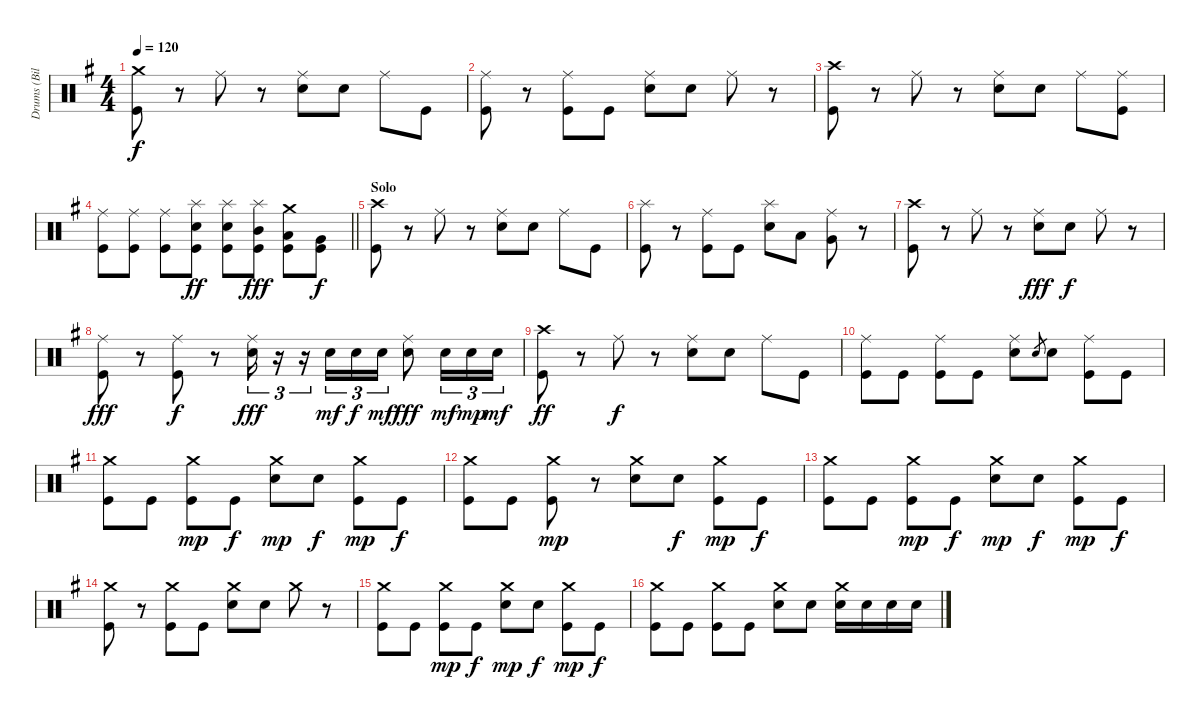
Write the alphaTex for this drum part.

\track ("Drums (Bill Ward)" "Drums (Bil") {instrument percussion}
\staff {score}
\articulation defaults
\ts (4 4)
\tempo 120
\clef neutral
\ks g
("Crash medium (hit)" "Kick (hit)").8{dy f} r.8 "Ride (middle)".8 r.8 ("Ride (middle)" "Electric Snare (hit)").8 "Electric Snare (hit)".8 "Ride (middle)".8 "Kick (hit)".8 |
("Ride (middle)" "Kick (hit)").8 r.8 ("Ride (middle)" "Kick (hit)").8 "Kick (hit)".8 ("Ride (middle)" "Electric Snare (hit)").8 "Electric Snare (hit)".8 "Ride (middle)".8 r.8 |
("Crash high (hit)" "Kick (hit)").8 r.8 "Ride (middle)".8 r.8 ("Ride (middle)" "Electric Snare (hit)").8 "Electric Snare (hit)".8 "Ride (middle)".8 ("Ride (middle)" "Kick (hit)").8 |
\barLineRight lightlight
("Ride (middle)" "Kick (hit)").8 ("Ride (middle)" "Kick (hit)").8 ("Ride (middle)" "Kick (hit)").8 ("Splash (hit)" "Electric Snare (hit)" "Kick (hit)").8{dy ff} ("Splash (hit)" "Electric Snare (hit)" "Kick (hit)").8 ("Splash (hit)" "Mid Tom (hit)" "Kick (hit)").8{dy fff} ("Crash medium (hit)" "Low Tom (hit)" "Kick (hit)").8 ("Very Low Tom (hit)" "Kick (hit)").8{dy f} |
\section ("" "Solo")
("Crash high (hit)" "Kick (hit)").8 r.8 "Ride (middle)".8 r.8 ("Ride (middle)" "Electric Snare (hit)").8 "Electric Snare (hit)".8 "Ride (middle)".8 "Kick (hit)".8 |
("Splash (hit)" "Kick (hit)").8 r.8 ("Ride (middle)" "Kick (hit)").8 "Kick (hit)".8 ("Splash (hit)" "Electric Snare (hit)").8 "Low Tom (hit)".8 ("Ride (middle)" "Very Low Tom (hit)").8 r.8 |
("Crash high (hit)" "Kick (hit)").8 r.8 "Ride (middle)".8 r.8 ("Ride (middle)" "Electric Snare (hit)").8{dy fff} "Electric Snare (hit)".8{dy f} "Ride (middle)".8 r.8 |
("Ride (middle)" "Kick (hit)").8{dy fff} r.8 ("Ride (middle)" "Kick (hit)").8{dy f} r.8 ("Ride (middle)" "Electric Snare (hit)").16{tu (3 2) dy fff} r.16{tu (3 2)} r.16{tu (3 2)} "Electric Snare (hit)".16{tu (3 2) dy mf} "Electric Snare (hit)".16{tu (3 2) dy f} "Electric Snare (hit)".16{tu (3 2) dy mf} ("Ride (middle)" "Electric Snare (hit)").8{dy fff} "Electric Snare (hit)".16{tu (3 2) dy mf} "Electric Snare (hit)".16{tu (3 2) dy mp} "Electric Snare (hit)".16{tu (3 2) dy mf} |
("Crash high (hit)" "Kick (hit)").8{dy ff} r.8 "Ride (middle)".8{dy f} r.8 ("Ride (middle)" "Electric Snare (hit)").8 "Electric Snare (hit)".8 "Ride (middle)".8 "Kick (hit)".8 |
("Ride (middle)" "Kick (hit)").8 "Kick (hit)".8 ("Ride (middle)" "Kick (hit)").8 "Kick (hit)".8 ("Ride (middle)" "Electric Snare (hit)").8 "Electric Snare (hit)".8{gr} "Electric Snare (hit)".8 ("Ride (middle)" "Kick (hit)").8 "Kick (hit)".8 |
("Crash medium (hit)" "Kick (hit)").8 "Kick (hit)".8 ("Crash medium (hit)" "Kick (hit)").8{dy mp} "Kick (hit)".8{dy f} ("Crash medium (hit)" "Electric Snare (hit)").8{dy mp} "Electric Snare (hit)".8{dy f} ("Crash medium (hit)" "Kick (hit)").8{dy mp} "Kick (hit)".8{dy f} |
("Crash medium (hit)" "Kick (hit)").8 "Kick (hit)".8 ("Crash medium (hit)" "Kick (hit)").8{dy mp} r.8 ("Crash medium (hit)" "Electric Snare (hit)").8 "Electric Snare (hit)".8{dy f} ("Crash medium (hit)" "Kick (hit)").8{dy mp} "Kick (hit)".8{dy f} |
("Crash medium (hit)" "Kick (hit)").8 "Kick (hit)".8 ("Crash medium (hit)" "Kick (hit)").8{dy mp} "Kick (hit)".8{dy f} ("Crash medium (hit)" "Electric Snare (hit)").8{dy mp} "Electric Snare (hit)".8{dy f} ("Crash medium (hit)" "Kick (hit)").8{dy mp} "Kick (hit)".8{dy f} |
("Crash medium (hit)" "Kick (hit)").8 r.8 ("Crash medium (hit)" "Kick (hit)").8 "Kick (hit)".8 ("Crash medium (hit)" "Electric Snare (hit)").8 "Electric Snare (hit)".8 "Crash medium (hit)".8 r.8 |
("Crash medium (hit)" "Kick (hit)").8 "Kick (hit)".8 ("Crash medium (hit)" "Kick (hit)").8{dy mp} "Kick (hit)".8{dy f} ("Crash medium (hit)" "Electric Snare (hit)").8{dy mp} "Electric Snare (hit)".8{dy f} ("Crash medium (hit)" "Kick (hit)").8{dy mp} "Kick (hit)".8{dy f} |
("Crash medium (hit)" "Kick (hit)").8 "Kick (hit)".8 ("Crash medium (hit)" "Kick (hit)").8 "Kick (hit)".8 ("Crash medium (hit)" "Electric Snare (hit)").8 "Electric Snare (hit)".8 ("Crash medium (hit)" "Electric Snare (hit)").16 "Electric Snare (hit)".16 "Electric Snare (hit)".16 "Electric Snare (hit)".16
